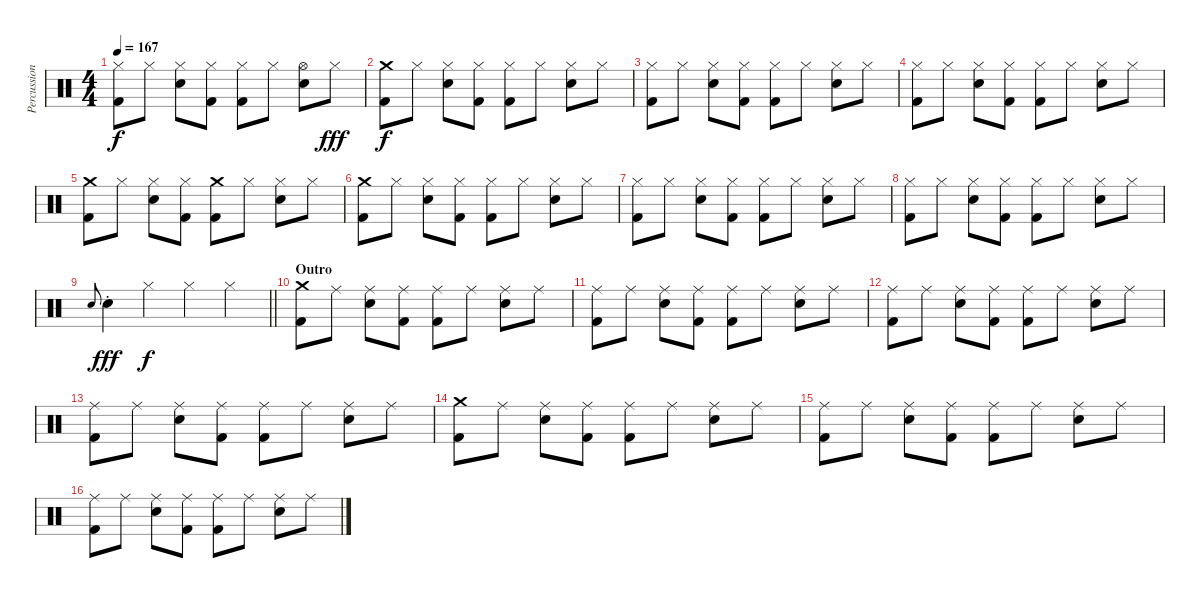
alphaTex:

\track ("Percussion" "Percussion") {instrument percussion}
\staff {score}
\articulation defaults
\ts (4 4)
\tempo 167
\clef neutral
\ks c
("Hi-Hat (closed)" "Kick (hit) 2").8{dy f} "Hi-Hat (closed)".8 ("Hi-Hat (closed)" "Snare (hit) 2").8 ("Hi-Hat (closed)" "Kick (hit) 2").8 ("Hi-Hat (closed)" "Kick (hit) 2").8 "Hi-Hat (closed)".8 ("Hi-Hat (open)" "Snare (hit) 2").8 "Hi-Hat (closed)".8{dy fff} |
("Crash medium (hit)" "Kick (hit) 2").8{dy f} "Hi-Hat (closed)".8 ("Hi-Hat (closed)" "Snare (hit) 2").8 ("Hi-Hat (closed)" "Kick (hit) 2").8 ("Hi-Hat (closed)" "Kick (hit) 2").8 "Hi-Hat (closed)".8 ("Hi-Hat (closed)" "Snare (hit) 2").8 "Hi-Hat (closed)".8 |
("Hi-Hat (closed)" "Kick (hit) 2").8 "Hi-Hat (closed)".8 ("Hi-Hat (closed)" "Snare (hit) 2").8 ("Hi-Hat (closed)" "Kick (hit) 2").8 ("Hi-Hat (closed)" "Kick (hit) 2").8 "Hi-Hat (closed)".8 ("Hi-Hat (closed)" "Snare (hit) 2").8 "Hi-Hat (closed)".8 |
("Hi-Hat (closed)" "Kick (hit) 2").8 "Hi-Hat (closed)".8 ("Hi-Hat (closed)" "Snare (hit) 2").8 ("Hi-Hat (closed)" "Kick (hit) 2").8 ("Hi-Hat (closed)" "Kick (hit) 2").8 "Hi-Hat (closed)".8 ("Hi-Hat (closed)" "Snare (hit) 2").8 "Hi-Hat (closed)".8 |
("Crash medium (hit)" "Kick (hit) 2").8 "Hi-Hat (closed)".8 ("Hi-Hat (closed)" "Snare (hit) 2").8 ("Hi-Hat (closed)" "Kick (hit) 2").8 ("Crash medium (hit)" "Kick (hit) 2").8 "Hi-Hat (closed)".8 ("Hi-Hat (closed)" "Snare (hit) 2").8 "Hi-Hat (closed)".8 |
("Crash medium (hit)" "Kick (hit) 2").8 "Hi-Hat (closed)".8 ("Hi-Hat (closed)" "Snare (hit) 2").8 ("Hi-Hat (closed)" "Kick (hit) 2").8 ("Hi-Hat (closed)" "Kick (hit) 2").8 "Hi-Hat (closed)".8 ("Hi-Hat (closed)" "Snare (hit) 2").8 "Hi-Hat (closed)".8 |
("Hi-Hat (closed)" "Kick (hit) 2").8 "Hi-Hat (closed)".8 ("Hi-Hat (closed)" "Snare (hit) 2").8 ("Hi-Hat (closed)" "Kick (hit) 2").8 ("Hi-Hat (closed)" "Kick (hit) 2").8 "Hi-Hat (closed)".8 ("Hi-Hat (closed)" "Snare (hit) 2").8 "Hi-Hat (closed)".8 |
("Hi-Hat (closed)" "Kick (hit) 2").8 "Hi-Hat (closed)".8 ("Hi-Hat (closed)" "Snare (hit) 2").8 ("Hi-Hat (closed)" "Kick (hit) 2").8 ("Hi-Hat (closed)" "Kick (hit) 2").8 "Hi-Hat (closed)".8 ("Hi-Hat (closed)" "Snare (hit) 2").8 "Hi-Hat (closed)".8 |
\barLineRight lightlight "Snare (hit) 2"{h}.8{gr onbeat} "Snare (hit) 2"{st}.4{dy fff} "Hi-Hat (closed)".4{dy f} "Hi-Hat (closed)".4 "Hi-Hat (closed)".4
|
\section ("" "Outro")
("Crash medium (hit)" "Kick (hit) 2").8 "Ride (middle)".8 ("Ride (middle)" "Snare (hit) 2").8 ("Ride (middle)" "Kick (hit) 2").8 ("Ride (middle)" "Kick (hit) 2").8 "Ride (middle)".8 ("Ride (middle)" "Snare (hit) 2").8 "Ride (middle)".8 |
("Ride (middle)" "Kick (hit) 2").8 "Ride (middle)".8 ("Ride (middle)" "Snare (hit) 2").8 ("Ride (middle)" "Kick (hit) 2").8 ("Ride (middle)" "Kick (hit) 2").8 "Ride (middle)".8 ("Ride (middle)" "Snare (hit) 2").8 "Ride (middle)".8 |
("Ride (middle)" "Kick (hit) 2").8 "Ride (middle)".8 ("Ride (middle)" "Snare (hit) 2").8 ("Ride (middle)" "Kick (hit) 2").8 ("Ride (middle)" "Kick (hit) 2").8 "Ride (middle)".8 ("Ride (middle)" "Snare (hit) 2").8 "Ride (middle)".8 |
("Ride (middle)" "Kick (hit) 2").8 "Ride (middle)".8 ("Ride (middle)" "Snare (hit) 2").8 ("Ride (middle)" "Kick (hit) 2").8 ("Ride (middle)" "Kick (hit) 2").8 "Ride (middle)".8 ("Ride (middle)" "Snare (hit) 2").8 "Ride (middle)".8 |
("Crash medium (hit)" "Kick (hit) 2").8 "Ride (middle)".8 ("Ride (middle)" "Snare (hit) 2").8 ("Ride (middle)" "Kick (hit) 2").8 ("Ride (middle)" "Kick (hit) 2").8 "Ride (middle)".8 ("Ride (middle)" "Snare (hit) 2").8 "Ride (middle)".8 |
("Ride (middle)" "Kick (hit) 2").8 "Ride (middle)".8 ("Ride (middle)" "Snare (hit) 2").8 ("Ride (middle)" "Kick (hit) 2").8 ("Ride (middle)" "Kick (hit) 2").8 "Ride (middle)".8 ("Ride (middle)" "Snare (hit) 2").8 "Ride (middle)".8 |
("Ride (middle)" "Kick (hit) 2").8 "Ride (middle)".8 ("Ride (middle)" "Snare (hit) 2").8 ("Ride (middle)" "Kick (hit) 2").8 ("Ride (middle)" "Kick (hit) 2").8 "Ride (middle)".8 ("Ride (middle)" "Snare (hit) 2").8 "Ride (middle)".8
